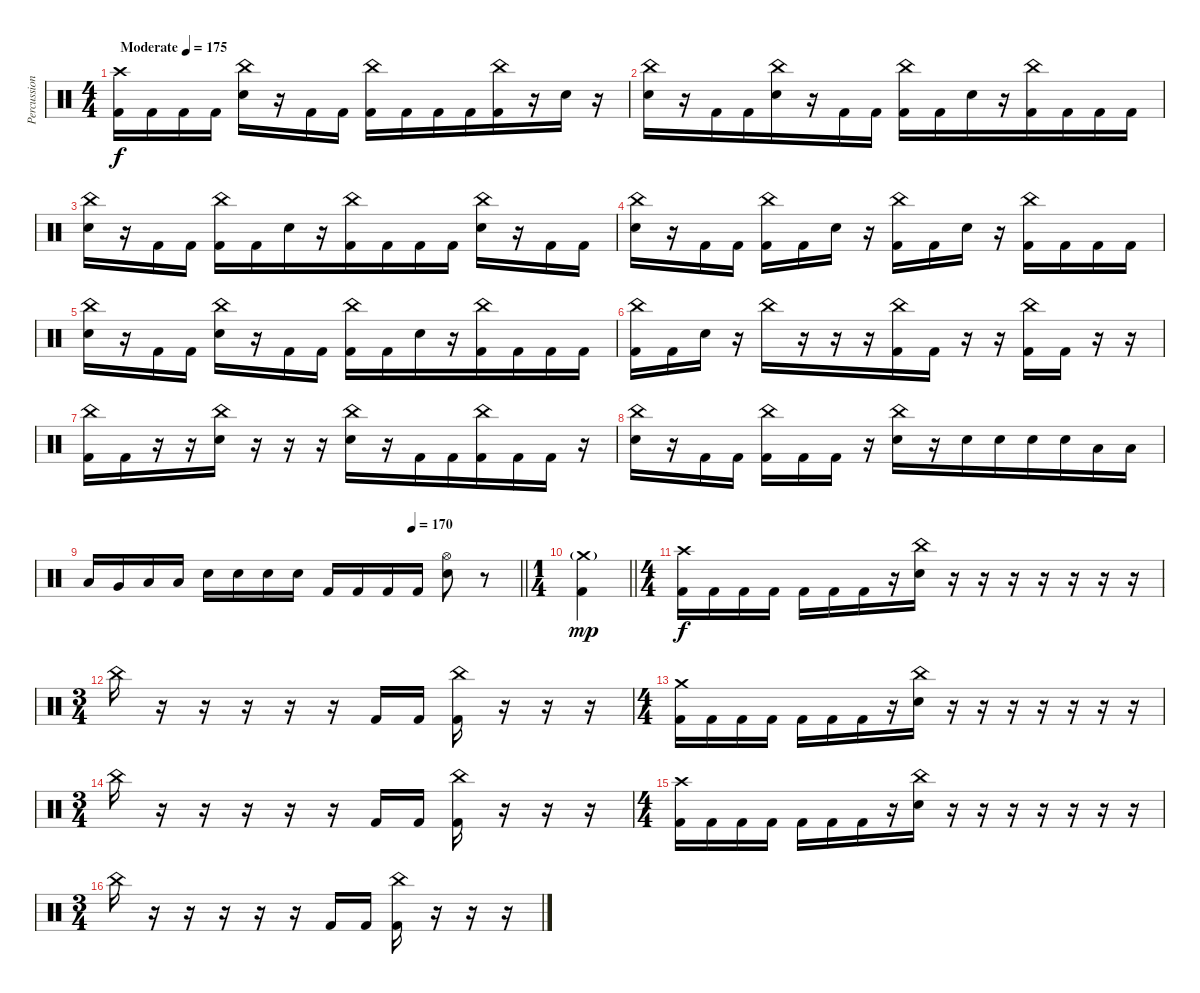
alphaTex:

\track ("Percussion" "Percussion") {instrument percussion}
\staff {score}
\articulation defaults
\ts (4 4)
\tempo (175 "Moderate")
\clef neutral
\ks c
("Crash high (hit)" "Kick (hit) 2").16{dy f} "Kick (hit) 2".16 "Kick (hit) 2".16{beam merge} "Kick (hit) 2".16 ("China (hit)" "Electric Snare (hit)").16{beam merge} r.16 "Kick (hit) 2".16 "Kick (hit) 2".16 ("China (hit)" "Kick (hit) 2").16 "Kick (hit) 2".16 "Kick (hit) 2".16 "Kick (hit) 2".16{beam merge} ("China (hit)" "Kick (hit) 2").16 r.16 "Electric Snare (hit)".16{beam merge} r.16 |
("China (hit)" "Electric Snare (hit)").16{beam merge} r.16 "Kick (hit) 2".16{beam merge} "Kick (hit) 2".16{beam merge} ("China (hit)" "Electric Snare (hit)").16{beam merge} r.16 "Kick (hit) 2".16 "Kick (hit) 2".16 ("China (hit)" "Kick (hit) 2").16 "Kick (hit) 2".16 "Electric Snare (hit)".16{beam merge} r.16{beam merge} ("China (hit)" "Kick (hit) 2").16 "Kick (hit) 2".16{beam merge} "Kick (hit) 2".16{beam merge} "Kick (hit) 2".16 |
("China (hit)" "Electric Snare (hit)").16{beam merge} r.16{beam merge} "Kick (hit) 2".16 "Kick (hit) 2".16 ("China (hit)" "Kick (hit) 2").16 "Kick (hit) 2".16 "Electric Snare (hit)".16{beam merge} r.16 ("China (hit)" "Kick (hit) 2").16{beam merge} "Kick (hit) 2".16{beam merge} "Kick (hit) 2".16 "Kick (hit) 2".16 ("China (hit)" "Electric Snare (hit)").16 r.16{beam merge} "Kick (hit) 2".16{beam merge} "Kick (hit) 2".16 |
("China (hit)" "Electric Snare (hit)").16 r.16 "Kick (hit) 2".16{beam merge} "Kick (hit) 2".16 ("China (hit)" "Kick (hit) 2").16 "Kick (hit) 2".16 "Electric Snare (hit)".16 r.16{beam merge} ("China (hit)" "Kick (hit) 2").16 "Kick (hit) 2".16{beam merge} "Electric Snare (hit)".16 r.16 ("China (hit)" "Kick (hit) 2").16 "Kick (hit) 2".16 "Kick (hit) 2".16 "Kick (hit) 2".16 |
("China (hit)" "Electric Snare (hit)").16{beam merge} r.16{beam merge} "Kick (hit) 2".16 "Kick (hit) 2".16 ("China (hit)" "Electric Snare (hit)").16{beam merge} r.16 "Kick (hit) 2".16{beam merge} "Kick (hit) 2".16 ("China (hit)" "Kick (hit) 2").16{beam merge} "Kick (hit) 2".16{beam merge} "Electric Snare (hit)".16{beam merge} r.16{beam merge} ("China (hit)" "Kick (hit) 2").16 "Kick (hit) 2".16 "Kick (hit) 2".16 "Kick (hit) 2".16 |
("China (hit)" "Kick (hit) 2").16 "Kick (hit) 2".16{beam merge} "Electric Snare (hit)".16 r.16 "China (hit)".16{beam merge} r.16{beam merge} r.16 r.16 ("China (hit)" "Kick (hit) 2").16{beam merge} "Kick (hit) 2".16 r.16 r.16 ("China (hit)" "Kick (hit) 2").16{beam merge} "Kick (hit) 2".16 r.16 r.16 |
("China (hit)" "Kick (hit) 2").16{beam merge} "Kick (hit) 2".16{beam merge} r.16 r.16{beam merge} ("China (hit)" "Electric Snare (hit)").16 r.16 r.16{beam merge} r.16 ("China (hit)" "Electric Snare (hit)").16 r.16 "Kick (hit) 2".16{beam merge} "Kick (hit) 2".16{beam merge} ("China (hit)" "Kick (hit) 2").16{beam merge} "Kick (hit) 2".16 "Kick (hit) 2".16 r.16 |
("China (hit)" "Electric Snare (hit)").16 r.16 "Kick (hit) 2".16{beam merge} "Kick (hit) 2".16 ("China (hit)" "Kick (hit) 2").16{beam merge} "Kick (hit) 2".16 "Kick (hit) 2".16 r.16{beam merge} ("China (hit)" "Electric Snare (hit)").16{beam merge} r.16 "Electric Snare (hit)".16{beam merge} "Electric Snare (hit)".16{beam merge} "Electric Snare (hit)".16 "Electric Snare (hit)".16{beam merge} "Low Tom (hit)".16{beam merge} "Low Tom (hit)".16 |
\tempo (170 0.75)
\barLineRight lightlight "Low Floor Tom (hit)".16 "Very Low Tom (hit)".16 "Low Floor Tom (hit)".16 "Low Floor Tom (hit)".16 "Electric Snare (hit)".16{beam merge} "Electric Snare (hit)".16 "Electric Snare (hit)".16{beam merge} "Electric Snare (hit)".16 "Kick (hit) 2".16{beam merge} "Kick (hit) 2".16{beam merge} "Kick (hit) 2".16 "Kick (hit) 2".16
("Hi-Hat (open)" "Electric Snare (hit)").8{beam merge} r.8 |
\ts (1 4)
\barLineRight lightlight
("Crash medium (hit)"{g} "Kick (hit) 2").4{dy mp} |
\ts (4 4)
\section ("" "")
("Crash high (hit)" "Kick (hit) 2").16{dy f} "Kick (hit) 2".16 "Kick (hit) 2".16 "Kick (hit) 2".16 "Kick (hit) 2".16 "Kick (hit) 2".16 "Kick (hit) 2".16{beam merge} r.16{beam merge} ("China (hit)" "Electric Snare (hit)").16 r.16 r.16{beam merge} r.16 r.16 r.16 r.16{beam merge} r.16 |
\ts (3 4)
"China (hit)".16 r.16 r.16 r.16{beam merge} r.16{beam merge} r.16 "Kick (hit) 2".16 "Kick (hit) 2".16 ("China (hit)" "Kick (hit) 2").16 r.16 r.16{beam merge} r.16 |
\ts (4 4)
("Crash medium (hit)" "Kick (hit) 2").16 "Kick (hit) 2".16 "Kick (hit) 2".16 "Kick (hit) 2".16 "Kick (hit) 2".16 "Kick (hit) 2".16 "Kick (hit) 2".16{beam merge} r.16{beam merge} ("China (hit)" "Electric Snare (hit)").16 r.16 r.16{beam merge} r.16 r.16 r.16 r.16{beam merge} r.16 |
\ts (3 4)
"China (hit)".16 r.16 r.16 r.16{beam merge} r.16{beam merge} r.16 "Kick (hit) 2".16 "Kick (hit) 2".16 ("China (hit)" "Kick (hit) 2").16 r.16 r.16{beam merge} r.16 |
\ts (4 4)
("Crash high (hit)" "Kick (hit) 2").16 "Kick (hit) 2".16 "Kick (hit) 2".16 "Kick (hit) 2".16 "Kick (hit) 2".16 "Kick (hit) 2".16 "Kick (hit) 2".16{beam merge} r.16{beam merge} ("China (hit)" "Electric Snare (hit)").16 r.16 r.16{beam merge} r.16 r.16 r.16 r.16{beam merge} r.16 |
\ts (3 4)
"China (hit)".16 r.16 r.16 r.16{beam merge} r.16{beam merge} r.16 "Kick (hit) 2".16 "Kick (hit) 2".16 ("China (hit)" "Kick (hit) 2").16 r.16 r.16{beam merge} r.16
